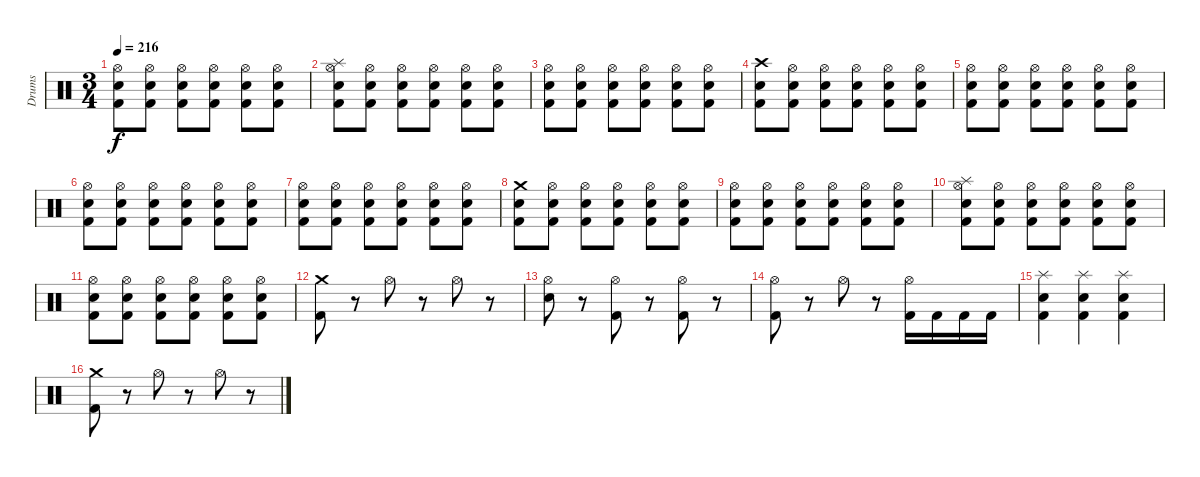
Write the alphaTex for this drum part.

\track ("Drums" "Drums") {instrument percussion}
\staff {score}
\articulation defaults
\ts (3 4)
\tempo 216
\clef neutral
\ks c
("Hi-Hat (open)" "Electric Snare (hit)" "Kick (hit) 2").8{dy f} ("Hi-Hat (open)" "Electric Snare (hit)" "Kick (hit) 2").8 ("Hi-Hat (open)" "Electric Snare (hit)" "Kick (hit) 2").8 ("Hi-Hat (open)" "Electric Snare (hit)" "Kick (hit) 2").8 ("Hi-Hat (open)" "Electric Snare (hit)" "Kick (hit) 2").8 ("Hi-Hat (open)" "Electric Snare (hit)" "Kick (hit) 2").8 |
("Splash (hit)" "Hi-Hat (open)" "Electric Snare (hit)" "Kick (hit) 2").8 ("Hi-Hat (open)" "Electric Snare (hit)" "Kick (hit) 2").8 ("Hi-Hat (open)" "Electric Snare (hit)" "Kick (hit) 2").8 ("Hi-Hat (open)" "Electric Snare (hit)" "Kick (hit) 2").8 ("Hi-Hat (open)" "Electric Snare (hit)" "Kick (hit) 2").8 ("Hi-Hat (open)" "Electric Snare (hit)" "Kick (hit) 2").8 |
("Hi-Hat (open)" "Electric Snare (hit)" "Kick (hit) 2").8 ("Hi-Hat (open)" "Electric Snare (hit)" "Kick (hit) 2").8 ("Hi-Hat (open)" "Electric Snare (hit)" "Kick (hit) 2").8 ("Hi-Hat (open)" "Electric Snare (hit)" "Kick (hit) 2").8 ("Hi-Hat (open)" "Electric Snare (hit)" "Kick (hit) 2").8 ("Hi-Hat (open)" "Electric Snare (hit)" "Kick (hit) 2").8 |
("Crash high (hit)" "Electric Snare (hit)" "Kick (hit) 2").8 ("Hi-Hat (open)" "Electric Snare (hit)" "Kick (hit) 2").8 ("Hi-Hat (open)" "Electric Snare (hit)" "Kick (hit) 2").8 ("Hi-Hat (open)" "Electric Snare (hit)" "Kick (hit) 2").8 ("Hi-Hat (open)" "Electric Snare (hit)" "Kick (hit) 2").8 ("Hi-Hat (open)" "Electric Snare (hit)" "Kick (hit) 2").8 |
("Hi-Hat (open)" "Electric Snare (hit)" "Kick (hit) 2").8 ("Hi-Hat (open)" "Electric Snare (hit)" "Kick (hit) 2").8 ("Hi-Hat (open)" "Electric Snare (hit)" "Kick (hit) 2").8 ("Hi-Hat (open)" "Electric Snare (hit)" "Kick (hit) 2").8 ("Hi-Hat (open)" "Electric Snare (hit)" "Kick (hit) 2").8 ("Hi-Hat (open)" "Electric Snare (hit)" "Kick (hit) 2").8 |
("Hi-Hat (open)" "Electric Snare (hit)" "Kick (hit) 2").8 ("Hi-Hat (open)" "Electric Snare (hit)" "Kick (hit) 2").8 ("Hi-Hat (open)" "Electric Snare (hit)" "Kick (hit) 2").8 ("Hi-Hat (open)" "Electric Snare (hit)" "Kick (hit) 2").8 ("Hi-Hat (open)" "Electric Snare (hit)" "Kick (hit) 2").8 ("Hi-Hat (open)" "Electric Snare (hit)" "Kick (hit) 2").8 |
("Hi-Hat (open)" "Electric Snare (hit)" "Kick (hit) 2").8 ("Hi-Hat (open)" "Electric Snare (hit)" "Kick (hit) 2").8 ("Hi-Hat (open)" "Electric Snare (hit)" "Kick (hit) 2").8 ("Hi-Hat (open)" "Electric Snare (hit)" "Kick (hit) 2").8 ("Hi-Hat (open)" "Electric Snare (hit)" "Kick (hit) 2").8 ("Hi-Hat (open)" "Electric Snare (hit)" "Kick (hit) 2").8 |
("Crash medium (hit)" "Electric Snare (hit)" "Kick (hit) 2").8 ("Hi-Hat (open)" "Electric Snare (hit)" "Kick (hit) 2").8 ("Hi-Hat (open)" "Electric Snare (hit)" "Kick (hit) 2").8 ("Hi-Hat (open)" "Electric Snare (hit)" "Kick (hit) 2").8 ("Hi-Hat (open)" "Electric Snare (hit)" "Kick (hit) 2").8 ("Hi-Hat (open)" "Electric Snare (hit)" "Kick (hit) 2").8 |
("Hi-Hat (open)" "Electric Snare (hit)" "Kick (hit) 2").8 ("Hi-Hat (open)" "Electric Snare (hit)" "Kick (hit) 2").8 ("Hi-Hat (open)" "Electric Snare (hit)" "Kick (hit) 2").8 ("Hi-Hat (open)" "Electric Snare (hit)" "Kick (hit) 2").8 ("Hi-Hat (open)" "Electric Snare (hit)" "Kick (hit) 2").8 ("Hi-Hat (open)" "Electric Snare (hit)" "Kick (hit) 2").8 |
("Splash (hit)" "Hi-Hat (open)" "Electric Snare (hit)" "Kick (hit) 2").8 ("Hi-Hat (open)" "Electric Snare (hit)" "Kick (hit) 2").8 ("Hi-Hat (open)" "Electric Snare (hit)" "Kick (hit) 2").8 ("Hi-Hat (open)" "Electric Snare (hit)" "Kick (hit) 2").8 ("Hi-Hat (open)" "Electric Snare (hit)" "Kick (hit) 2").8 ("Hi-Hat (open)" "Electric Snare (hit)" "Kick (hit) 2").8 |
("Hi-Hat (open)" "Electric Snare (hit)" "Kick (hit) 2").8 ("Hi-Hat (open)" "Electric Snare (hit)" "Kick (hit) 2").8 ("Hi-Hat (open)" "Electric Snare (hit)" "Kick (hit) 2").8 ("Hi-Hat (open)" "Electric Snare (hit)" "Kick (hit) 2").8 ("Hi-Hat (open)" "Electric Snare (hit)" "Kick (hit) 2").8 ("Hi-Hat (open)" "Electric Snare (hit)" "Kick (hit) 2").8 |
("Crash medium (hit)" "Kick (hit) 2").8 r.8 "Hi-Hat (open)".8 r.8 "Hi-Hat (open)".8 r.8 |
("Hi-Hat (open)" "Electric Snare (hit)").8 r.8 ("Hi-Hat (open)" "Kick (hit) 2").8 r.8 ("Hi-Hat (open)" "Kick (hit) 2").8 r.8 |
("Hi-Hat (open)" "Kick (hit) 2").8 r.8 "Hi-Hat (open)".8 r.8 ("Hi-Hat (open)" "Kick (hit) 2").16 "Kick (hit) 2".16 "Kick (hit) 2".16 "Kick (hit) 2".16 |
("Splash (hit)" "Electric Snare (hit)" "Kick (hit) 2").4 ("Splash (hit)" "Electric Snare (hit)" "Kick (hit) 2").4 ("Splash (hit)" "Electric Snare (hit)" "Kick (hit) 2").4 |
("Crash medium (hit)" "Kick (hit) 2").8 r.8 "Hi-Hat (open)".8 r.8 "Hi-Hat (open)".8 r.8
